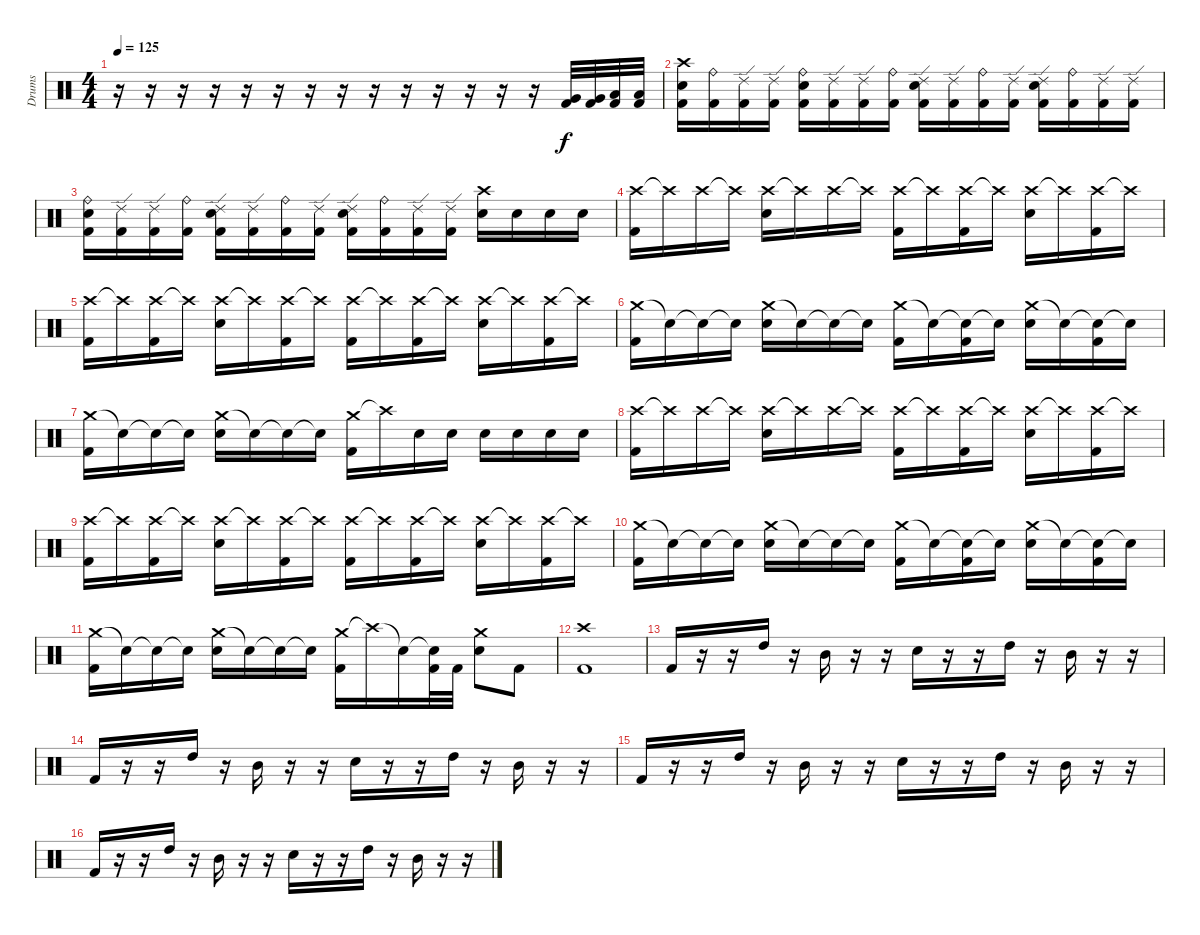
\track ("Drums" "Drums") {instrument percussion}
\staff {score}
\articulation defaults
\ts (4 4)
\tempo 125
\clef neutral
\ks c
r.16{dy f} r.16 r.16 r.16 r.16 r.16 r.16 r.16 r.16 r.16 r.16 r.16 r.16 r.16 ("Very Low Tom (hit)" "Kick (hit) 2").32 ("Very Low Tom (hit)" "Kick (hit) 2").32 ("Low Floor Tom (hit)" "Kick (hit) 2").32 ("Low Floor Tom (hit)" "Kick (hit) 2").32 |
("Crash high (hit)" "Electric Snare (hit)" "Kick (hit) 2").16 ("Ride (bell)" "Kick (hit) 2").16 ("Ride (edge) 2" "Kick (hit) 2").16 ("Ride (edge) 2" "Kick (hit) 2").16 ("Ride (bell)" "Electric Snare (hit)" "Kick (hit) 2").16 ("Ride (edge) 2" "Kick (hit) 2").16 ("Ride (edge) 2" "Kick (hit) 2").16 ("Ride (bell)" "Kick (hit) 2").16 ("Ride (edge) 2" "Electric Snare (hit)" "Kick (hit) 2").16 ("Ride (edge) 2" "Kick (hit) 2").16 ("Ride (bell)" "Kick (hit) 2").16 ("Ride (edge) 2" "Kick (hit) 2").16 ("Ride (edge) 2" "Electric Snare (hit)" "Kick (hit) 2").16 ("Ride (bell)" "Kick (hit) 2").16 ("Ride (edge) 2" "Kick (hit) 2").16 ("Ride (edge) 2" "Kick (hit) 2").16 |
("Ride (bell)" "Electric Snare (hit)" "Kick (hit) 2").16 ("Ride (edge) 2" "Kick (hit) 2").16 ("Ride (edge) 2" "Kick (hit) 2").16 ("Ride (bell)" "Kick (hit) 2").16 ("Ride (edge) 2" "Electric Snare (hit)" "Kick (hit) 2").16 ("Ride (edge) 2" "Kick (hit) 2").16 ("Ride (bell)" "Kick (hit) 2").16 ("Ride (edge) 2" "Kick (hit) 2").16 ("Ride (edge) 2" "Electric Snare (hit)" "Kick (hit) 2").16 ("Ride (bell)" "Kick (hit) 2").16 ("Ride (edge) 2" "Kick (hit) 2").16 ("Ride (edge) 2" "Kick (hit) 2").16 ("Crash high (hit)" "Electric Snare (hit)").16 "Electric Snare (hit)".16 "Electric Snare (hit)".16 "Electric Snare (hit)".16 |
("Crash high (hit)" "Kick (hit) 2").16 "Crash high (hit)"{t}.16 "Crash high (hit)".16 "Crash high (hit)"{t}.16 ("Crash high (hit)" "Electric Snare (hit)").16 "Crash high (hit)"{t}.16 "Crash high (hit)".16 "Crash high (hit)"{t}.16 ("Crash high (hit)" "Kick (hit) 2").16 "Crash high (hit)"{t}.16 ("Crash high (hit)" "Kick (hit) 2").16 "Crash high (hit)"{t}.16 ("Crash high (hit)" "Electric Snare (hit)").16 "Crash high (hit)"{t}.16 ("Crash high (hit)" "Kick (hit) 2").16 "Crash high (hit)"{t}.16 |
("Crash high (hit)" "Kick (hit) 2").16 "Crash high (hit)"{t}.16 ("Crash high (hit)" "Kick (hit) 2").16 "Crash high (hit)"{t}.16 ("Crash high (hit)" "Electric Snare (hit)").16 "Crash high (hit)"{t}.16 ("Crash high (hit)" "Kick (hit) 2").16 "Crash high (hit)"{t}.16 ("Crash high (hit)" "Kick (hit) 2").16 "Crash high (hit)"{t}.16 ("Crash high (hit)" "Kick (hit) 2").16 "Crash high (hit)"{t}.16 ("Crash high (hit)" "Electric Snare (hit)").16 "Crash high (hit)"{t}.16 ("Crash high (hit)" "Kick (hit) 2").16 "Crash high (hit)"{t}.16 |
("Crash medium (hit)" "Kick (hit) 2").16 "Snare (hit)"{t}.16 "Snare (hit)"{t}.16 "Snare (hit)"{t}.16 ("Crash medium (hit)" "Electric Snare (hit)").16 "Snare (hit)"{t}.16 "Snare (hit)"{t}.16 "Snare (hit)"{t}.16 ("Crash medium (hit)" "Kick (hit) 2").16 "Snare (hit)"{t}.16 ("Snare (hit)"{t} "Kick (hit) 2").16 "Snare (hit)"{t}.16 ("Crash medium (hit)" "Electric Snare (hit)").16 "Snare (hit)"{t}.16 ("Snare (hit)"{t} "Kick (hit) 2").16 "Snare (hit)"{t}.16 |
("Crash medium (hit)" "Kick (hit) 2").16 "Snare (hit)"{t}.16 "Snare (hit)"{t}.16 "Snare (hit)"{t}.16 ("Crash medium (hit)" "Electric Snare (hit)").16 "Snare (hit)"{t}.16 "Snare (hit)"{t}.16 "Snare (hit)"{t}.16 ("Crash medium (hit)" "Kick (hit) 2").16 "Crash high (hit)"{t}.16 "Electric Snare (hit)".16 "Electric Snare (hit)".16 "Electric Snare (hit)".16 "Electric Snare (hit)".16 "Electric Snare (hit)".16 "Electric Snare (hit)".16 |
("Crash high (hit)" "Kick (hit) 2").16 "Crash high (hit)"{t}.16 "Crash high (hit)".16 "Crash high (hit)"{t}.16 ("Crash high (hit)" "Electric Snare (hit)").16 "Crash high (hit)"{t}.16 "Crash high (hit)".16 "Crash high (hit)"{t}.16 ("Crash high (hit)" "Kick (hit) 2").16 "Crash high (hit)"{t}.16 ("Crash high (hit)" "Kick (hit) 2").16 "Crash high (hit)"{t}.16 ("Crash high (hit)" "Electric Snare (hit)").16 "Crash high (hit)"{t}.16 ("Crash high (hit)" "Kick (hit) 2").16 "Crash high (hit)"{t}.16 |
("Crash high (hit)" "Kick (hit) 2").16 "Crash high (hit)"{t}.16 ("Crash high (hit)" "Kick (hit) 2").16 "Crash high (hit)"{t}.16 ("Crash high (hit)" "Electric Snare (hit)").16 "Crash high (hit)"{t}.16 ("Crash high (hit)" "Kick (hit) 2").16 "Crash high (hit)"{t}.16 ("Crash high (hit)" "Kick (hit) 2").16 "Crash high (hit)"{t}.16 ("Crash high (hit)" "Kick (hit) 2").16 "Crash high (hit)"{t}.16 ("Crash high (hit)" "Electric Snare (hit)").16 "Crash high (hit)"{t}.16 ("Crash high (hit)" "Kick (hit) 2").16 "Crash high (hit)"{t}.16 |
("Crash medium (hit)" "Kick (hit) 2").16 "Snare (hit)"{t}.16 "Snare (hit)"{t}.16 "Snare (hit)"{t}.16 ("Crash medium (hit)" "Electric Snare (hit)").16 "Snare (hit)"{t}.16 "Snare (hit)"{t}.16 "Snare (hit)"{t}.16 ("Crash medium (hit)" "Kick (hit) 2").16 "Snare (hit)"{t}.16 ("Snare (hit)"{t} "Kick (hit) 2").16 "Snare (hit)"{t}.16 ("Crash medium (hit)" "Electric Snare (hit)").16 "Snare (hit)"{t}.16 ("Snare (hit)"{t} "Kick (hit) 2").16 "Snare (hit)"{t}.16 |
("Crash medium (hit)" "Kick (hit) 2").16 "Snare (hit)"{t}.16 "Snare (hit)"{t}.16 "Snare (hit)"{t}.16 ("Crash medium (hit)" "Electric Snare (hit)").16 "Snare (hit)"{t}.16 "Snare (hit)"{t}.16 "Snare (hit)"{t}.16 ("Crash medium (hit)" "Kick (hit) 2").16 "Crash high (hit)"{t}.16 "Snare (hit)"{t}.16 ("Snare (hit)"{t} "Kick (hit) 2").32 "Kick (hit) 2".32 ("Crash medium (hit)" "Electric Snare (hit)").8 "Kick (hit) 2".8 |
("Crash high (hit)" "Kick (hit) 2").1 |
"Kick (hit) 2".16 r.16 r.16 "High Tom (hit)".16 r.16 "Mid Tom (hit)".16 r.16 r.16 "Electric Snare (hit)".16 r.16 r.16 "High Tom (hit)".16 r.16 "Mid Tom (hit)".16 r.16 r.16 |
"Kick (hit) 2".16 r.16 r.16 "High Tom (hit)".16 r.16 "Mid Tom (hit)".16 r.16 r.16 "Electric Snare (hit)".16 r.16 r.16 "High Tom (hit)".16 r.16 "Mid Tom (hit)".16 r.16 r.16 |
"Kick (hit) 2".16 r.16 r.16 "High Tom (hit)".16 r.16 "Mid Tom (hit)".16 r.16 r.16 "Electric Snare (hit)".16 r.16 r.16 "High Tom (hit)".16 r.16 "Mid Tom (hit)".16 r.16 r.16 |
"Kick (hit) 2".16 r.16 r.16 "High Tom (hit)".16 r.16 "Mid Tom (hit)".16 r.16 r.16 "Electric Snare (hit)".16 r.16 r.16 "High Tom (hit)".16 r.16 "Mid Tom (hit)".16 r.16 r.16
